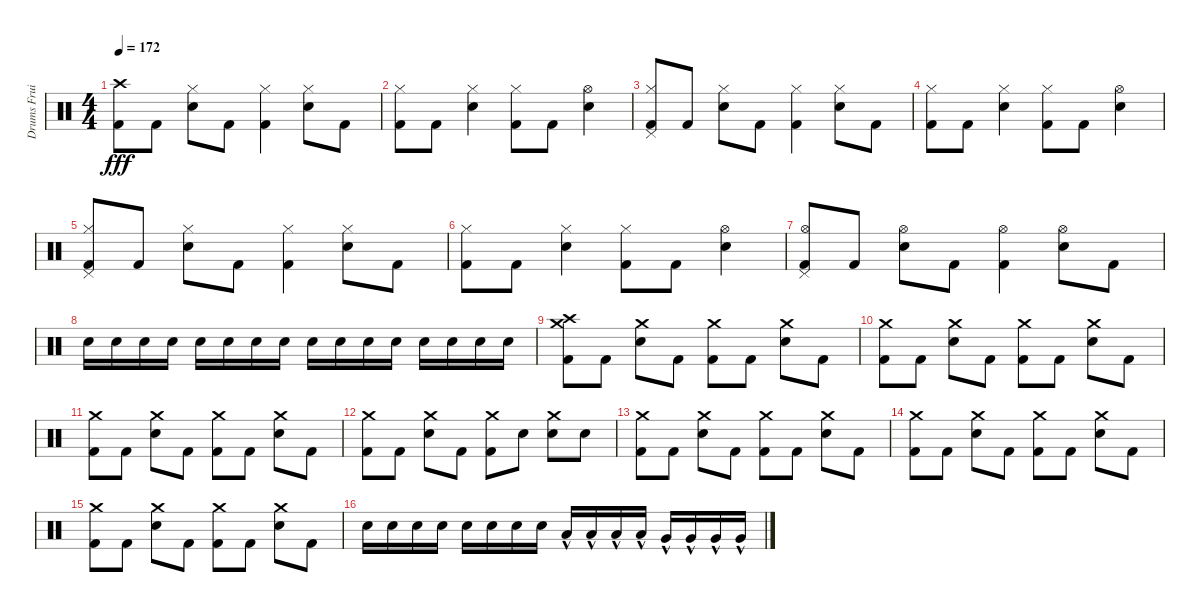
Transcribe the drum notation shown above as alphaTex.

\track ("Drums Fruity Lexia" "Drums Frui") {instrument percussion}
\staff {score}
\articulation defaults
\ts (4 4)
\tempo 172
\clef neutral
\ks c
("Crash high (hit)" "Kick (hit) 2").8{dy fff} "Kick (hit) 2".8 ("Hi-Hat (closed)" "Electric Snare (hit)").8 "Kick (hit) 2".8 ("Hi-Hat (closed)" "Kick (hit) 2").4 ("Hi-Hat (closed)" "Electric Snare (hit)").8 "Kick (hit) 2".8 |
("Hi-Hat (closed)" "Kick (hit) 2").8 "Kick (hit) 2".8 ("Hi-Hat (closed)" "Electric Snare (hit)").4 ("Hi-Hat (closed)" "Kick (hit) 2").8 "Kick (hit) 2".8 ("Hi-Hat (open)" "Electric Snare (hit)").4 |
("Hi-Hat (closed)" "Pedal Hi-Hat (hit)" "Kick (hit) 2").8 "Kick (hit) 2".8 ("Hi-Hat (closed)" "Electric Snare (hit)").8 "Kick (hit) 2".8 ("Hi-Hat (closed)" "Kick (hit) 2").4 ("Hi-Hat (closed)" "Electric Snare (hit)").8 "Kick (hit) 2".8 |
("Hi-Hat (closed)" "Kick (hit) 2").8 "Kick (hit) 2".8 ("Hi-Hat (closed)" "Electric Snare (hit)").4 ("Hi-Hat (closed)" "Kick (hit) 2").8 "Kick (hit) 2".8 ("Hi-Hat (open)" "Electric Snare (hit)").4 |
("Hi-Hat (closed)" "Pedal Hi-Hat (hit)" "Kick (hit) 2").8 "Kick (hit) 2".8 ("Hi-Hat (closed)" "Electric Snare (hit)").8 "Kick (hit) 2".8 ("Hi-Hat (closed)" "Kick (hit) 2").4 ("Hi-Hat (closed)" "Electric Snare (hit)").8 "Kick (hit) 2".8 |
("Hi-Hat (closed)" "Kick (hit) 2").8 "Kick (hit) 2".8 ("Hi-Hat (closed)" "Electric Snare (hit)").4 ("Hi-Hat (closed)" "Kick (hit) 2").8 "Kick (hit) 2".8 ("Hi-Hat (open)" "Electric Snare (hit)").4 |
("Hi-Hat (open)" "Pedal Hi-Hat (hit)" "Kick (hit) 2").8 "Kick (hit) 2".8 ("Hi-Hat (open)" "Electric Snare (hit)").8 "Kick (hit) 2".8 ("Hi-Hat (open)" "Kick (hit) 2").4 ("Hi-Hat (open)" "Electric Snare (hit)").8 "Kick (hit) 2".8 |
"Electric Snare (hit)".16 "Electric Snare (hit)".16 "Electric Snare (hit)".16 "Electric Snare (hit)".16 "Electric Snare (hit)".16 "Electric Snare (hit)".16 "Electric Snare (hit)".16 "Electric Snare (hit)".16 "Electric Snare (hit)".16 "Electric Snare (hit)".16 "Electric Snare (hit)".16 "Electric Snare (hit)".16 "Electric Snare (hit)".16 "Electric Snare (hit)".16 "Electric Snare (hit)".16 "Electric Snare (hit)".16 |
("Crash high (hit)" "Crash medium (hit)" "Kick (hit) 2").8 "Kick (hit) 2".8 ("Crash medium (hit)" "Electric Snare (hit)").8 "Kick (hit) 2".8 ("Crash medium (hit)" "Kick (hit) 2").8 "Kick (hit) 2".8 ("Crash medium (hit)" "Electric Snare (hit)").8 "Kick (hit) 2".8 |
("Crash medium (hit)" "Kick (hit) 2").8 "Kick (hit) 2".8 ("Crash medium (hit)" "Electric Snare (hit)").8 "Kick (hit) 2".8 ("Crash medium (hit)" "Kick (hit) 2").8 "Kick (hit) 2".8 ("Crash medium (hit)" "Electric Snare (hit)").8 "Kick (hit) 2".8 |
("Crash medium (hit)" "Kick (hit) 2").8 "Kick (hit) 2".8 ("Crash medium (hit)" "Electric Snare (hit)").8 "Kick (hit) 2".8 ("Crash medium (hit)" "Kick (hit) 2").8 "Kick (hit) 2".8 ("Crash medium (hit)" "Electric Snare (hit)").8 "Kick (hit) 2".8 |
("Crash medium (hit)" "Kick (hit) 2").8 "Kick (hit) 2".8 ("Crash medium (hit)" "Electric Snare (hit)").8 "Kick (hit) 2".8 ("Crash medium (hit)" "Kick (hit) 2").8 "Electric Snare (hit)".8 ("Crash medium (hit)" "Electric Snare (hit)").8 "Electric Snare (hit)".8 |
("Crash medium (hit)" "Kick (hit) 2").8 "Kick (hit) 2".8 ("Crash medium (hit)" "Electric Snare (hit)").8 "Kick (hit) 2".8 ("Crash medium (hit)" "Kick (hit) 2").8 "Kick (hit) 2".8 ("Crash medium (hit)" "Electric Snare (hit)").8 "Kick (hit) 2".8 |
("Crash medium (hit)" "Kick (hit) 2").8 "Kick (hit) 2".8 ("Crash medium (hit)" "Electric Snare (hit)").8 "Kick (hit) 2".8 ("Crash medium (hit)" "Kick (hit) 2").8 "Kick (hit) 2".8 ("Crash medium (hit)" "Electric Snare (hit)").8 "Kick (hit) 2".8 |
("Crash medium (hit)" "Kick (hit) 2").8 "Kick (hit) 2".8 ("Crash medium (hit)" "Electric Snare (hit)").8 "Kick (hit) 2".8 ("Crash medium (hit)" "Kick (hit) 2").8 "Kick (hit) 2".8 ("Crash medium (hit)" "Electric Snare (hit)").8 "Kick (hit) 2".8 |
"Electric Snare (hit)".16 "Electric Snare (hit)".16 "Electric Snare (hit)".16 "Electric Snare (hit)".16 "Electric Snare (hit)".16 "Electric Snare (hit)".16 "Electric Snare (hit)".16 "Electric Snare (hit)".16 "Low Tom (hit)"{hac}.16 "Low Tom (hit)"{hac}.16 "Low Tom (hit)"{hac}.16 "Low Tom (hit)"{hac}.16 "Very Low Tom (hit)"{hac}.16 "Very Low Tom (hit)"{hac}.16 "Very Low Tom (hit)"{hac}.16 "Very Low Tom (hit)"{hac}.16
